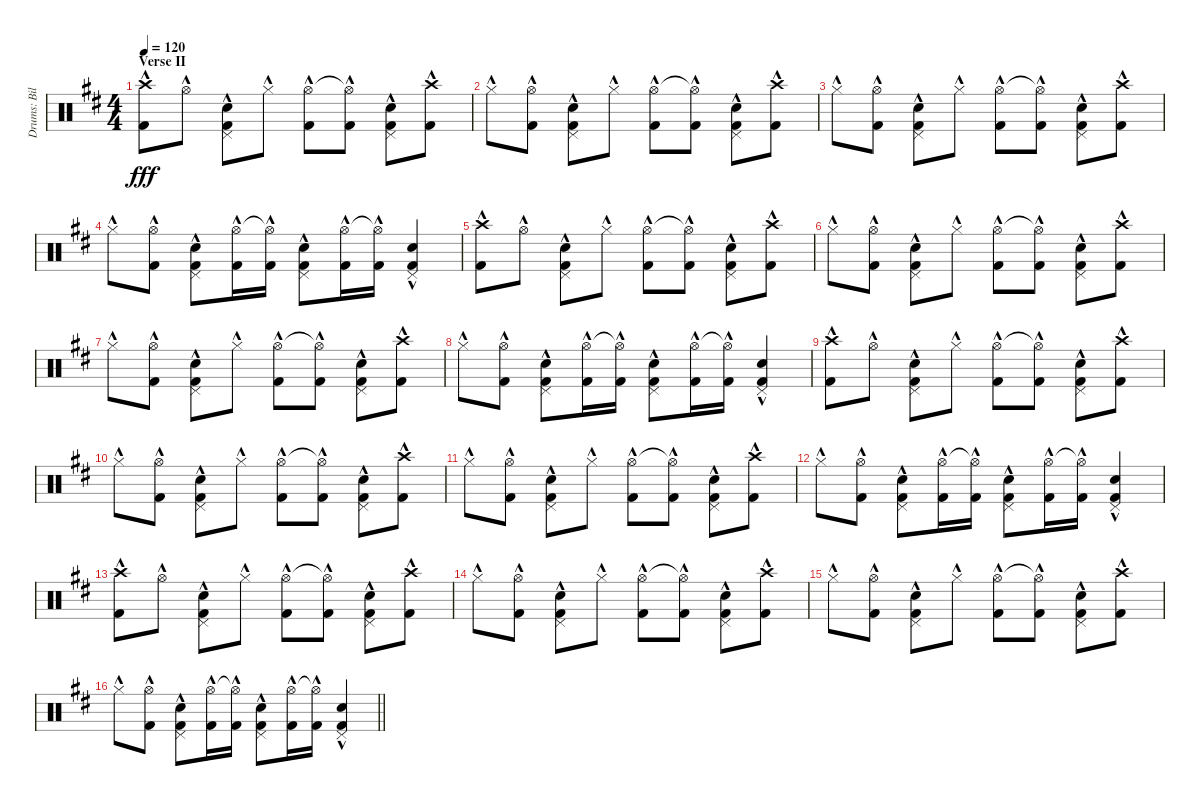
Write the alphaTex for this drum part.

\track ("Drums: Bill" "Drums: Bil") {instrument percussion}
\staff {score}
\articulation defaults
\ts (4 4)
\section ("" "Verse II")
\tempo 120
\clef neutral
\ks d
("Crash high (hit)"{hac} "Kick (hit) 2"{hac}).8{dy fff} "Hi-Hat (open)"{hac}.8 ("Pedal Hi-Hat (hit)"{hac} "Snare (hit) 2"{hac} "Kick (hit) 2"{hac}).8 "Hi-Hat (closed)"{hac}.8 ("Hi-Hat (open)"{hac} "Kick (hit) 2"{hac}).8 ("Hi-Hat (open)"{t} "Kick (hit) 2"{hac}).8 ("Pedal Hi-Hat (hit)"{hac} "Snare (hit) 2"{hac} "Kick (hit) 2"{hac}).8 ("Crash high (hit)"{hac} "Kick (hit) 2"{hac}).8 |
"Hi-Hat (closed)"{hac}.8 ("Hi-Hat (open)"{hac} "Kick (hit) 2"{hac}).8 ("Pedal Hi-Hat (hit)"{hac} "Snare (hit) 2"{hac} "Kick (hit) 2"{hac}).8 "Hi-Hat (closed)"{hac}.8 ("Hi-Hat (open)"{hac} "Kick (hit) 2"{hac}).8 ("Hi-Hat (open)"{t} "Kick (hit) 2"{hac}).8 ("Pedal Hi-Hat (hit)"{hac} "Snare (hit) 2"{hac} "Kick (hit) 2"{hac}).8 ("Crash high (hit)"{hac} "Kick (hit) 2"{hac}).8 |
"Hi-Hat (closed)"{hac}.8 ("Hi-Hat (open)"{hac} "Kick (hit) 2"{hac}).8 ("Pedal Hi-Hat (hit)"{hac} "Snare (hit) 2"{hac} "Kick (hit) 2"{hac}).8 "Hi-Hat (closed)"{hac}.8 ("Hi-Hat (open)"{hac} "Kick (hit) 2"{hac}).8 ("Hi-Hat (open)"{t} "Kick (hit) 2"{hac}).8 ("Pedal Hi-Hat (hit)"{hac} "Snare (hit) 2"{hac} "Kick (hit) 2"{hac}).8 ("Crash high (hit)"{hac} "Kick (hit) 2"{hac}).8 |
"Hi-Hat (closed)"{hac}.8 ("Hi-Hat (open)"{hac} "Kick (hit) 2"{hac}).8 ("Pedal Hi-Hat (hit)"{hac} "Snare (hit) 2"{hac} "Kick (hit) 2"{hac}).8 ("Hi-Hat (open)"{hac} "Kick (hit) 2"{hac}).16 ("Hi-Hat (open)"{t} "Kick (hit) 2"{hac}).16 ("Pedal Hi-Hat (hit)"{hac} "Snare (hit) 2"{hac} "Kick (hit) 2"{hac}).8 ("Hi-Hat (open)"{hac} "Kick (hit) 2"{hac}).16 ("Hi-Hat (open)"{t} "Kick (hit) 2"{hac}).16 ("Pedal Hi-Hat (hit)"{hac} "Snare (hit) 2"{hac} "Kick (hit) 2"{hac}).4 |
("Crash high (hit)"{hac} "Kick (hit) 2"{hac}).8 "Hi-Hat (open)"{hac}.8 ("Pedal Hi-Hat (hit)"{hac} "Snare (hit) 2"{hac} "Kick (hit) 2"{hac}).8 "Hi-Hat (closed)"{hac}.8 ("Hi-Hat (open)"{hac} "Kick (hit) 2"{hac}).8 ("Hi-Hat (open)"{t} "Kick (hit) 2"{hac}).8 ("Pedal Hi-Hat (hit)"{hac} "Snare (hit) 2"{hac} "Kick (hit) 2"{hac}).8 ("Crash high (hit)"{hac} "Kick (hit) 2"{hac}).8 |
"Hi-Hat (closed)"{hac}.8 ("Hi-Hat (open)"{hac} "Kick (hit) 2"{hac}).8 ("Pedal Hi-Hat (hit)"{hac} "Snare (hit) 2"{hac} "Kick (hit) 2"{hac}).8 "Hi-Hat (closed)"{hac}.8 ("Hi-Hat (open)"{hac} "Kick (hit) 2"{hac}).8 ("Hi-Hat (open)"{t} "Kick (hit) 2"{hac}).8 ("Pedal Hi-Hat (hit)"{hac} "Snare (hit) 2"{hac} "Kick (hit) 2"{hac}).8 ("Crash high (hit)"{hac} "Kick (hit) 2"{hac}).8 |
"Hi-Hat (closed)"{hac}.8 ("Hi-Hat (open)"{hac} "Kick (hit) 2"{hac}).8 ("Pedal Hi-Hat (hit)"{hac} "Snare (hit) 2"{hac} "Kick (hit) 2"{hac}).8 "Hi-Hat (closed)"{hac}.8 ("Hi-Hat (open)"{hac} "Kick (hit) 2"{hac}).8 ("Hi-Hat (open)"{t} "Kick (hit) 2"{hac}).8 ("Pedal Hi-Hat (hit)"{hac} "Snare (hit) 2"{hac} "Kick (hit) 2"{hac}).8 ("Crash high (hit)"{hac} "Kick (hit) 2"{hac}).8 |
"Hi-Hat (closed)"{hac}.8 ("Hi-Hat (open)"{hac} "Kick (hit) 2"{hac}).8 ("Pedal Hi-Hat (hit)"{hac} "Snare (hit) 2"{hac} "Kick (hit) 2"{hac}).8 ("Hi-Hat (open)"{hac} "Kick (hit) 2"{hac}).16 ("Hi-Hat (open)"{t} "Kick (hit) 2"{hac}).16 ("Pedal Hi-Hat (hit)"{hac} "Snare (hit) 2"{hac} "Kick (hit) 2"{hac}).8 ("Hi-Hat (open)"{hac} "Kick (hit) 2"{hac}).16 ("Hi-Hat (open)"{t} "Kick (hit) 2"{hac}).16 ("Pedal Hi-Hat (hit)"{hac} "Snare (hit) 2"{hac} "Kick (hit) 2"{hac}).4 |
("Crash high (hit)"{hac} "Kick (hit) 2"{hac}).8 "Hi-Hat (open)"{hac}.8 ("Pedal Hi-Hat (hit)"{hac} "Snare (hit) 2"{hac} "Kick (hit) 2"{hac}).8 "Hi-Hat (closed)"{hac}.8 ("Hi-Hat (open)"{hac} "Kick (hit) 2"{hac}).8 ("Hi-Hat (open)"{t} "Kick (hit) 2"{hac}).8 ("Pedal Hi-Hat (hit)"{hac} "Snare (hit) 2"{hac} "Kick (hit) 2"{hac}).8 ("Crash high (hit)"{hac} "Kick (hit) 2"{hac}).8 |
"Hi-Hat (closed)"{hac}.8 ("Hi-Hat (open)"{hac} "Kick (hit) 2"{hac}).8 ("Pedal Hi-Hat (hit)"{hac} "Snare (hit) 2"{hac} "Kick (hit) 2"{hac}).8 "Hi-Hat (closed)"{hac}.8 ("Hi-Hat (open)"{hac} "Kick (hit) 2"{hac}).8 ("Hi-Hat (open)"{t} "Kick (hit) 2"{hac}).8 ("Pedal Hi-Hat (hit)"{hac} "Snare (hit) 2"{hac} "Kick (hit) 2"{hac}).8 ("Crash high (hit)"{hac} "Kick (hit) 2"{hac}).8 |
"Hi-Hat (closed)"{hac}.8 ("Hi-Hat (open)"{hac} "Kick (hit) 2"{hac}).8 ("Pedal Hi-Hat (hit)"{hac} "Snare (hit) 2"{hac} "Kick (hit) 2"{hac}).8 "Hi-Hat (closed)"{hac}.8 ("Hi-Hat (open)"{hac} "Kick (hit) 2"{hac}).8 ("Hi-Hat (open)"{t} "Kick (hit) 2"{hac}).8 ("Pedal Hi-Hat (hit)"{hac} "Snare (hit) 2"{hac} "Kick (hit) 2"{hac}).8 ("Crash high (hit)"{hac} "Kick (hit) 2"{hac}).8 |
"Hi-Hat (closed)"{hac}.8 ("Hi-Hat (open)"{hac} "Kick (hit) 2"{hac}).8 ("Pedal Hi-Hat (hit)"{hac} "Snare (hit) 2"{hac} "Kick (hit) 2"{hac}).8 ("Hi-Hat (open)"{hac} "Kick (hit) 2"{hac}).16 ("Hi-Hat (open)"{t} "Kick (hit) 2"{hac}).16 ("Pedal Hi-Hat (hit)"{hac} "Snare (hit) 2"{hac} "Kick (hit) 2"{hac}).8 ("Hi-Hat (open)"{hac} "Kick (hit) 2"{hac}).16 ("Hi-Hat (open)"{t} "Kick (hit) 2"{hac}).16 ("Pedal Hi-Hat (hit)"{hac} "Snare (hit) 2"{hac} "Kick (hit) 2"{hac}).4 |
("Crash high (hit)"{hac} "Kick (hit) 2"{hac}).8 "Hi-Hat (open)"{hac}.8 ("Pedal Hi-Hat (hit)"{hac} "Snare (hit) 2"{hac} "Kick (hit) 2"{hac}).8 "Hi-Hat (closed)"{hac}.8 ("Hi-Hat (open)"{hac} "Kick (hit) 2"{hac}).8 ("Hi-Hat (open)"{t} "Kick (hit) 2"{hac}).8 ("Pedal Hi-Hat (hit)"{hac} "Snare (hit) 2"{hac} "Kick (hit) 2"{hac}).8 ("Crash high (hit)"{hac} "Kick (hit) 2"{hac}).8 |
"Hi-Hat (closed)"{hac}.8 ("Hi-Hat (open)"{hac} "Kick (hit) 2"{hac}).8 ("Pedal Hi-Hat (hit)"{hac} "Snare (hit) 2"{hac} "Kick (hit) 2"{hac}).8 "Hi-Hat (closed)"{hac}.8 ("Hi-Hat (open)"{hac} "Kick (hit) 2"{hac}).8 ("Hi-Hat (open)"{t} "Kick (hit) 2"{hac}).8 ("Pedal Hi-Hat (hit)"{hac} "Snare (hit) 2"{hac} "Kick (hit) 2"{hac}).8 ("Crash high (hit)"{hac} "Kick (hit) 2"{hac}).8 |
"Hi-Hat (closed)"{hac}.8 ("Hi-Hat (open)"{hac} "Kick (hit) 2"{hac}).8 ("Pedal Hi-Hat (hit)"{hac} "Snare (hit) 2"{hac} "Kick (hit) 2"{hac}).8 "Hi-Hat (closed)"{hac}.8 ("Hi-Hat (open)"{hac} "Kick (hit) 2"{hac}).8 ("Hi-Hat (open)"{t} "Kick (hit) 2"{hac}).8 ("Pedal Hi-Hat (hit)"{hac} "Snare (hit) 2"{hac} "Kick (hit) 2"{hac}).8 ("Crash high (hit)"{hac} "Kick (hit) 2"{hac}).8 |
\barLineRight lightlight "Hi-Hat (closed)"{hac}.8
("Hi-Hat (open)"{hac} "Kick (hit) 2"{hac}).8 ("Pedal Hi-Hat (hit)"{hac} "Snare (hit) 2"{hac} "Kick (hit) 2"{hac}).8 ("Hi-Hat (open)"{hac} "Kick (hit) 2"{hac}).16 ("Hi-Hat (open)"{t} "Kick (hit) 2"{hac}).16 ("Pedal Hi-Hat (hit)"{hac} "Snare (hit) 2"{hac} "Kick (hit) 2"{hac}).8 ("Hi-Hat (open)"{hac} "Kick (hit) 2"{hac}).16 ("Hi-Hat (open)"{t} "Kick (hit) 2"{hac}).16 ("Pedal Hi-Hat (hit)"{hac} "Snare (hit) 2"{hac} "Kick (hit) 2"{hac}).4
